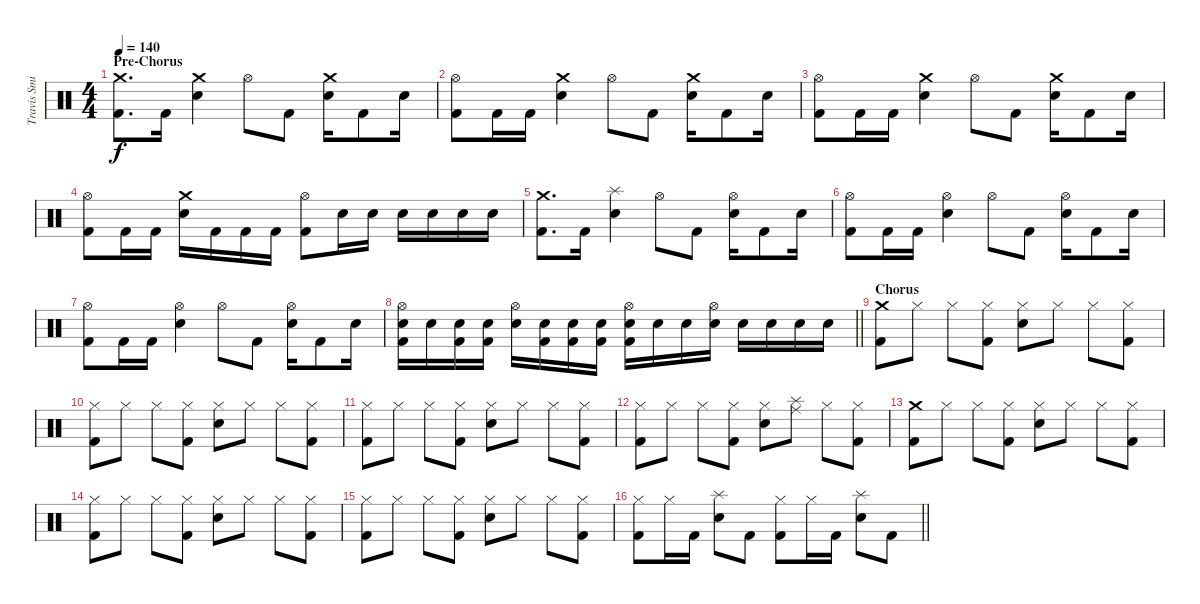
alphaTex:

\track ("Travis Smith" "Travis Smi") {instrument percussion}
\staff {score}
\articulation defaults
\ts (4 4)
\section ("" "Pre-Chorus")
\tempo 140
\clef neutral
\ks c
("Crash medium (hit)" "Kick (hit) 2").8{d dy f} "Kick (hit) 2".16 ("Crash medium (hit)" "Electric Snare (hit)").4 "Hi-Hat (open)".8 "Kick (hit) 2".8 ("Crash medium (hit)" "Electric Snare (hit)").16 "Kick (hit) 2".8 "Electric Snare (hit)".16 |
("Hi-Hat (open)" "Kick (hit) 2").8 "Kick (hit) 2".16 "Kick (hit) 2".16 ("Crash medium (hit)" "Electric Snare (hit)").4 "Hi-Hat (open)".8 "Kick (hit) 2".8 ("Crash medium (hit)" "Electric Snare (hit)").16 "Kick (hit) 2".8 "Electric Snare (hit)".16 |
("Hi-Hat (open)" "Kick (hit) 2").8 "Kick (hit) 2".16 "Kick (hit) 2".16 ("Crash medium (hit)" "Electric Snare (hit)").4 "Hi-Hat (open)".8 "Kick (hit) 2".8 ("Crash medium (hit)" "Electric Snare (hit)").16 "Kick (hit) 2".8 "Electric Snare (hit)".16 |
("Hi-Hat (open)" "Kick (hit) 2").8 "Kick (hit) 2".16 "Kick (hit) 2".16 ("Crash medium (hit)" "Electric Snare (hit)").16 "Kick (hit) 2".16 "Kick (hit) 2".16 "Kick (hit) 2".16 ("Hi-Hat (open)" "Kick (hit) 2").8 "Electric Snare (hit)".16 "Electric Snare (hit)".16 "Electric Snare (hit)".16 "Electric Snare (hit)".16 "Electric Snare (hit)".16 "Electric Snare (hit)".16 |
("Crash medium (hit)" "Kick (hit) 2").8{d} "Kick (hit) 2".16 ("Splash (hit)" "Electric Snare (hit)").4 "Hi-Hat (open)".8 "Kick (hit) 2".8 ("Hi-Hat (open)" "Electric Snare (hit)").16 "Kick (hit) 2".8 "Electric Snare (hit)".16 |
("Hi-Hat (open)" "Kick (hit) 2").8 "Kick (hit) 2".16 "Kick (hit) 2".16 ("Hi-Hat (open)" "Electric Snare (hit)").4 "Hi-Hat (open)".8 "Kick (hit) 2".8 ("Hi-Hat (open)" "Electric Snare (hit)").16 "Kick (hit) 2".8 "Electric Snare (hit)".16 |
("Hi-Hat (open)" "Kick (hit) 2").8 "Kick (hit) 2".16 "Kick (hit) 2".16 ("Hi-Hat (open)" "Electric Snare (hit)").4 "Hi-Hat (open)".8 "Kick (hit) 2".8 ("Hi-Hat (open)" "Electric Snare (hit)").16 "Kick (hit) 2".8 "Electric Snare (hit)".16 |
\barLineRight lightlight
("Hi-Hat (open)" "Electric Snare (hit)" "Kick (hit) 2").16 "Electric Snare (hit)".16 ("Electric Snare (hit)" "Kick (hit) 2").16 ("Electric Snare (hit)" "Kick (hit) 2").16 ("Hi-Hat (open)" "Electric Snare (hit)").16 ("Electric Snare (hit)" "Kick (hit) 2").16 ("Electric Snare (hit)" "Kick (hit) 2").16 ("Electric Snare (hit)" "Kick (hit) 2").16 ("Hi-Hat (open)" "Electric Snare (hit)" "Kick (hit) 2").16 "Electric Snare (hit)".16 "Electric Snare (hit)".16 ("Hi-Hat (open)" "Electric Snare (hit)").16 "Electric Snare (hit)".16 "Electric Snare (hit)".16 "Electric Snare (hit)".16 "Electric Snare (hit)".16 |
\section ("" "Chorus")
("Crash medium (hit)" "Kick (hit) 2").8 "Hi-Hat (closed)".8 "Hi-Hat (closed)".8 ("Hi-Hat (closed)" "Kick (hit) 2").8 ("Hi-Hat (closed)" "Electric Snare (hit)").8 "Hi-Hat (closed)".8 "Hi-Hat (closed)".8 ("Hi-Hat (closed)" "Kick (hit) 2").8 |
("Hi-Hat (closed)" "Kick (hit) 2").8 "Hi-Hat (closed)".8 "Hi-Hat (closed)".8 ("Hi-Hat (closed)" "Kick (hit) 2").8 ("Hi-Hat (closed)" "Electric Snare (hit)").8 "Hi-Hat (closed)".8 "Hi-Hat (closed)".8 ("Hi-Hat (closed)" "Kick (hit) 2").8 |
("Hi-Hat (closed)" "Kick (hit) 2").8 "Hi-Hat (closed)".8 "Hi-Hat (closed)".8 ("Hi-Hat (closed)" "Kick (hit) 2").8 ("Hi-Hat (closed)" "Electric Snare (hit)").8 "Hi-Hat (closed)".8 "Hi-Hat (closed)".8 ("Hi-Hat (closed)" "Kick (hit) 2").8 |
("Hi-Hat (closed)" "Kick (hit) 2").8 "Hi-Hat (closed)".8 "Hi-Hat (closed)".8 ("Hi-Hat (closed)" "Kick (hit) 2").8 ("Hi-Hat (closed)" "Electric Snare (hit)").8 ("Ride (middle)" "Splash (hit)").8 "Hi-Hat (closed)".8 ("Hi-Hat (closed)" "Kick (hit) 2").8 |
("Crash medium (hit)" "Kick (hit) 2").8 "Hi-Hat (closed)".8 "Hi-Hat (closed)".8 ("Hi-Hat (closed)" "Kick (hit) 2").8 ("Hi-Hat (closed)" "Electric Snare (hit)").8 "Hi-Hat (closed)".8 "Hi-Hat (closed)".8 ("Hi-Hat (closed)" "Kick (hit) 2").8 |
("Hi-Hat (closed)" "Kick (hit) 2").8 "Hi-Hat (closed)".8 "Hi-Hat (closed)".8 ("Hi-Hat (closed)" "Kick (hit) 2").8 ("Hi-Hat (closed)" "Electric Snare (hit)").8 "Hi-Hat (closed)".8 "Hi-Hat (closed)".8 ("Hi-Hat (closed)" "Kick (hit) 2").8 |
("Hi-Hat (closed)" "Kick (hit) 2").8 "Hi-Hat (closed)".8 "Hi-Hat (closed)".8 ("Hi-Hat (closed)" "Kick (hit) 2").8 ("Hi-Hat (closed)" "Electric Snare (hit)").8 "Hi-Hat (closed)".8 "Hi-Hat (closed)".8 ("Hi-Hat (closed)" "Kick (hit) 2").8 |
\barLineRight lightlight
("Hi-Hat (closed)" "Kick (hit) 2").8 "Hi-Hat (closed)".16 "Kick (hit) 2".16 ("Splash (hit)" "Electric Snare (hit)").8 "Kick (hit) 2".8 ("Hi-Hat (closed)" "Kick (hit) 2").8 "Hi-Hat (closed)".16 "Kick (hit) 2".16 ("Splash (hit)" "Electric Snare (hit)").8 "Kick (hit) 2".8
